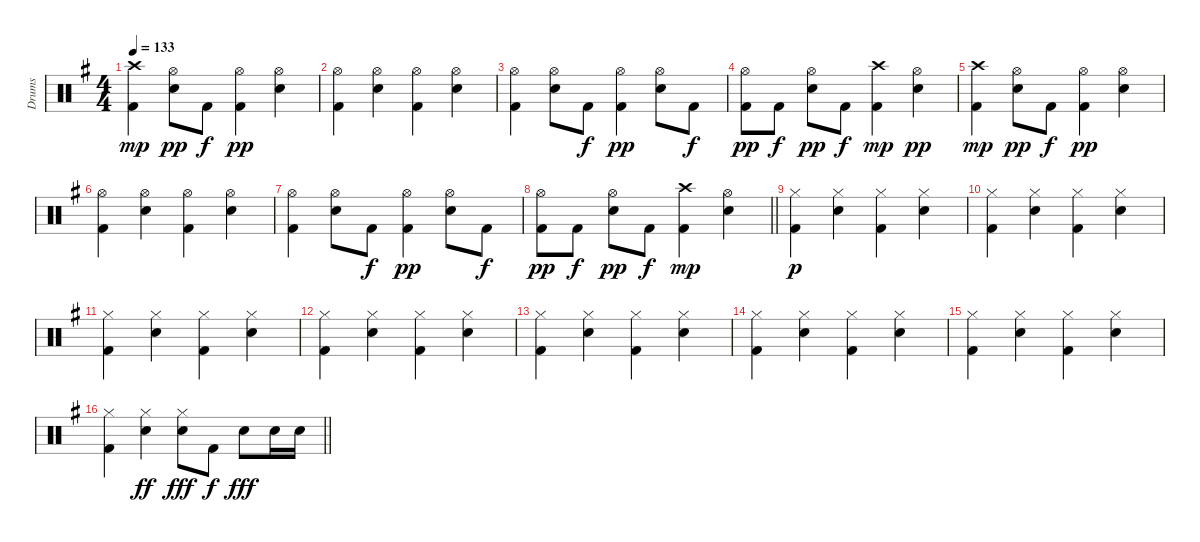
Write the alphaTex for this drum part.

\track ("Drums" "Drums") {instrument percussion}
\staff {score}
\articulation defaults
\ts (4 4)
\tempo 133
\clef neutral
\ks g
("Crash high (hit)" "Kick (hit) 2").4{dy mp} ("Electric Snare (hit)" "Hi-Hat (open)").8{dy pp} "Kick (hit) 2".8{dy f} ("Kick (hit) 2" "Hi-Hat (open)").4{dy pp} ("Electric Snare (hit)" "Hi-Hat (open)").4 |
("Kick (hit) 2" "Hi-Hat (open)").4 ("Electric Snare (hit)" "Hi-Hat (open)").4 ("Kick (hit) 2" "Hi-Hat (open)").4 ("Electric Snare (hit)" "Hi-Hat (open)").4 |
("Kick (hit) 2" "Hi-Hat (open)").4 ("Electric Snare (hit)" "Hi-Hat (open)").8 "Kick (hit) 2".8{dy f} ("Kick (hit) 2" "Hi-Hat (open)").4{dy pp} ("Electric Snare (hit)" "Hi-Hat (open)").8 "Kick (hit) 2".8{dy f} |
("Kick (hit) 2" "Hi-Hat (open)").8{dy pp} "Kick (hit) 2".8{dy f} ("Electric Snare (hit)" "Hi-Hat (open)").8{dy pp} "Kick (hit) 2".8{dy f} ("Kick (hit) 2" "Crash high (hit)").4{dy mp} ("Electric Snare (hit)" "Hi-Hat (open)").4{dy pp} |
("Crash high (hit)" "Kick (hit) 2").4{dy mp} ("Electric Snare (hit)" "Hi-Hat (open)").8{dy pp} "Kick (hit) 2".8{dy f} ("Kick (hit) 2" "Hi-Hat (open)").4{dy pp} ("Electric Snare (hit)" "Hi-Hat (open)").4 |
("Kick (hit) 2" "Hi-Hat (open)").4 ("Electric Snare (hit)" "Hi-Hat (open)").4 ("Kick (hit) 2" "Hi-Hat (open)").4 ("Electric Snare (hit)" "Hi-Hat (open)").4 |
("Kick (hit) 2" "Hi-Hat (open)").4 ("Electric Snare (hit)" "Hi-Hat (open)").8 "Kick (hit) 2".8{dy f} ("Kick (hit) 2" "Hi-Hat (open)").4{dy pp} ("Electric Snare (hit)" "Hi-Hat (open)").8 "Kick (hit) 2".8{dy f} |
\barLineRight lightlight
("Kick (hit) 2" "Hi-Hat (open)").8{dy pp} "Kick (hit) 2".8{dy f} ("Electric Snare (hit)" "Hi-Hat (open)").8{dy pp} "Kick (hit) 2".8{dy f} ("Kick (hit) 2" "Crash high (hit)").4{dy mp} ("Electric Snare (hit)" "Hi-Hat (open)").4 |
("Hi-Hat (closed)" "Kick (hit) 2").4{dy p} ("Hi-Hat (closed)" "Electric Snare (hit)").4 ("Hi-Hat (closed)" "Kick (hit) 2").4 ("Hi-Hat (closed)" "Electric Snare (hit)").4 |
("Hi-Hat (closed)" "Kick (hit) 2").4 ("Hi-Hat (closed)" "Electric Snare (hit)").4 ("Hi-Hat (closed)" "Kick (hit) 2").4 ("Hi-Hat (closed)" "Electric Snare (hit)").4 |
("Hi-Hat (closed)" "Kick (hit) 2").4 ("Hi-Hat (closed)" "Electric Snare (hit)").4 ("Hi-Hat (closed)" "Kick (hit) 2").4 ("Hi-Hat (closed)" "Electric Snare (hit)").4 |
("Hi-Hat (closed)" "Kick (hit) 2").4 ("Hi-Hat (closed)" "Electric Snare (hit)").4 ("Hi-Hat (closed)" "Kick (hit) 2").4 ("Hi-Hat (closed)" "Electric Snare (hit)").4 |
("Hi-Hat (closed)" "Kick (hit) 2").4 ("Hi-Hat (closed)" "Electric Snare (hit)").4 ("Hi-Hat (closed)" "Kick (hit) 2").4 ("Hi-Hat (closed)" "Electric Snare (hit)").4 |
("Hi-Hat (closed)" "Kick (hit) 2").4 ("Hi-Hat (closed)" "Electric Snare (hit)").4 ("Hi-Hat (closed)" "Kick (hit) 2").4 ("Hi-Hat (closed)" "Electric Snare (hit)").4 |
("Hi-Hat (closed)" "Kick (hit) 2").4 ("Hi-Hat (closed)" "Electric Snare (hit)").4 ("Hi-Hat (closed)" "Kick (hit) 2").4 ("Hi-Hat (closed)" "Electric Snare (hit)").4 |
\barLineRight lightlight
("Hi-Hat (closed)" "Kick (hit) 2").4 ("Hi-Hat (closed)" "Electric Snare (hit)").4{dy ff} ("Hi-Hat (closed)" "Electric Snare (hit)").8{dy fff} "Kick (hit) 2".8{dy f} "Electric Snare (hit)".8{dy fff} "Electric Snare (hit)".16 "Electric Snare (hit)".16
